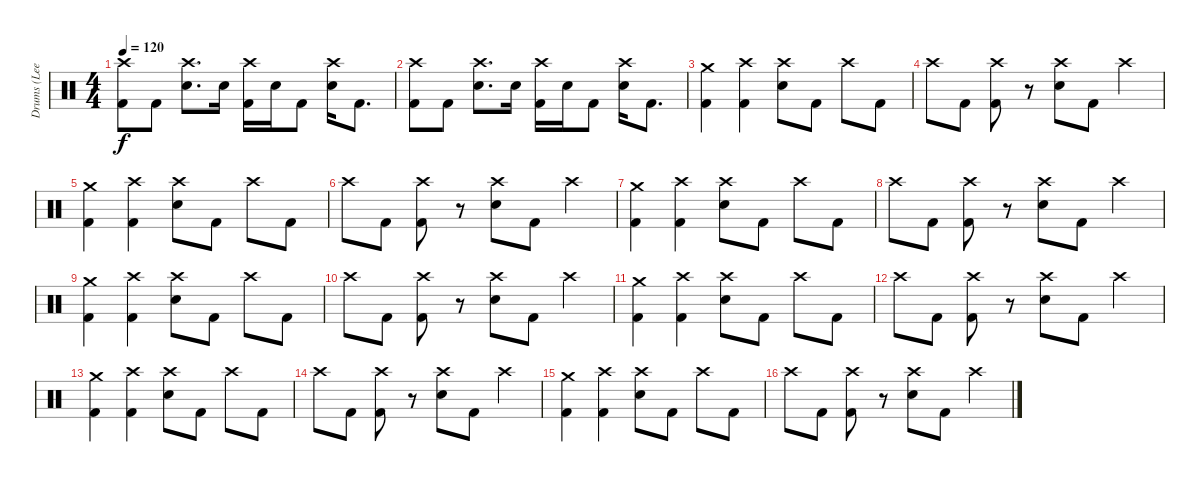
\track ("Drums (Lee)" "Drums (Lee") {instrument percussion}
\staff {score}
\articulation defaults
\ts (4 4)
\tempo 120
\clef neutral
\ks c
("Crash high (hit)" "Kick (hit) 2").8{dy f} "Kick (hit) 2".8 ("Crash high (hit)" "Electric Snare (hit)").8{d} "Electric Snare (hit)".16 ("Crash high (hit)" "Kick (hit) 2").16 "Electric Snare (hit)".16 "Kick (hit) 2".8 ("Crash high (hit)" "Electric Snare (hit)").16 "Kick (hit) 2".8{d} |
("Crash high (hit)" "Kick (hit) 2").8 "Kick (hit) 2".8 ("Crash high (hit)" "Electric Snare (hit)").8{d} "Electric Snare (hit)".16 ("Crash high (hit)" "Kick (hit) 2").16 "Electric Snare (hit)".16 "Kick (hit) 2".8 ("Crash high (hit)" "Electric Snare (hit)").16 "Kick (hit) 2".8{d} |
("Crash medium (hit)" "Kick (hit) 2").4 ("Crash high (hit)" "Kick (hit) 2").4 ("Crash high (hit)" "Electric Snare (hit)").8 "Kick (hit) 2".8 "Crash high (hit)".8 "Kick (hit) 2".8 |
"Crash high (hit)".8 "Kick (hit) 2".8 ("Crash high (hit)" "Kick (hit) 2").8 r.8 ("Crash high (hit)" "Electric Snare (hit)").8 "Kick (hit) 2".8 "Crash high (hit)".4 |
("Crash medium (hit)" "Kick (hit) 2").4 ("Crash high (hit)" "Kick (hit) 2").4 ("Crash high (hit)" "Electric Snare (hit)").8 "Kick (hit) 2".8 "Crash high (hit)".8 "Kick (hit) 2".8 |
"Crash high (hit)".8 "Kick (hit) 2".8 ("Crash high (hit)" "Kick (hit) 2").8 r.8 ("Crash high (hit)" "Electric Snare (hit)").8 "Kick (hit) 2".8 "Crash high (hit)".4 |
("Crash medium (hit)" "Kick (hit) 2").4 ("Crash high (hit)" "Kick (hit) 2").4 ("Crash high (hit)" "Electric Snare (hit)").8 "Kick (hit) 2".8 "Crash high (hit)".8 "Kick (hit) 2".8 |
"Crash high (hit)".8 "Kick (hit) 2".8 ("Crash high (hit)" "Kick (hit) 2").8 r.8 ("Crash high (hit)" "Electric Snare (hit)").8 "Kick (hit) 2".8 "Crash high (hit)".4 |
("Crash medium (hit)" "Kick (hit) 2").4 ("Crash high (hit)" "Kick (hit) 2").4 ("Crash high (hit)" "Electric Snare (hit)").8 "Kick (hit) 2".8 "Crash high (hit)".8 "Kick (hit) 2".8 |
"Crash high (hit)".8 "Kick (hit) 2".8 ("Crash high (hit)" "Kick (hit) 2").8 r.8 ("Crash high (hit)" "Electric Snare (hit)").8 "Kick (hit) 2".8 "Crash high (hit)".4 |
("Crash medium (hit)" "Kick (hit) 2").4 ("Crash high (hit)" "Kick (hit) 2").4 ("Crash high (hit)" "Electric Snare (hit)").8 "Kick (hit) 2".8 "Crash high (hit)".8 "Kick (hit) 2".8 |
"Crash high (hit)".8 "Kick (hit) 2".8 ("Crash high (hit)" "Kick (hit) 2").8 r.8 ("Crash high (hit)" "Electric Snare (hit)").8 "Kick (hit) 2".8 "Crash high (hit)".4 |
("Crash medium (hit)" "Kick (hit) 2").4 ("Crash high (hit)" "Kick (hit) 2").4 ("Crash high (hit)" "Electric Snare (hit)").8 "Kick (hit) 2".8 "Crash high (hit)".8 "Kick (hit) 2".8 |
"Crash high (hit)".8 "Kick (hit) 2".8 ("Crash high (hit)" "Kick (hit) 2").8 r.8 ("Crash high (hit)" "Electric Snare (hit)").8 "Kick (hit) 2".8 "Crash high (hit)".4 |
("Crash medium (hit)" "Kick (hit) 2").4 ("Crash high (hit)" "Kick (hit) 2").4 ("Crash high (hit)" "Electric Snare (hit)").8 "Kick (hit) 2".8 "Crash high (hit)".8 "Kick (hit) 2".8 |
"Crash high (hit)".8 "Kick (hit) 2".8 ("Crash high (hit)" "Kick (hit) 2").8 r.8 ("Crash high (hit)" "Electric Snare (hit)").8 "Kick (hit) 2".8 "Crash high (hit)".4
